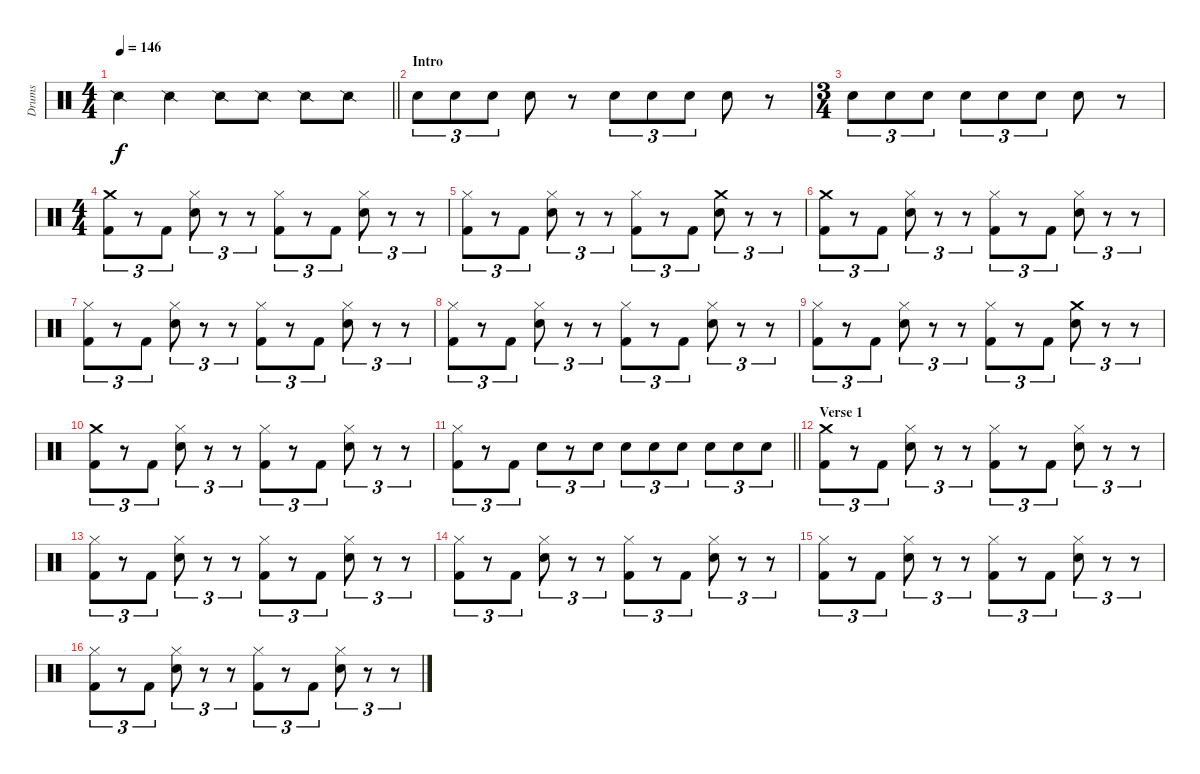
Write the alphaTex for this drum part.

\track ("Drums" "Drums") {instrument percussion}
\staff {score}
\articulation defaults
\ts (4 4)
\tempo 146
\clef neutral
\barLineRight lightlight
\ks c "Snare (side stick) 2".4{dy f} "Snare (side stick) 2".4 "Snare (side stick) 2".8 "Snare (side stick) 2".8 "Snare (side stick) 2".8 "Snare (side stick) 2".8
|
\section ("" "Intro")
"Snare (hit) 2".8{tu (3 2)} "Snare (hit) 2".8{tu (3 2)} "Snare (hit) 2".8{tu (3 2)} "Snare (hit) 2".8 r.8 "Snare (hit) 2".8{tu (3 2)} "Snare (hit) 2".8{tu (3 2)} "Snare (hit) 2".8{tu (3 2)} "Snare (hit) 2".8 r.8 |
\ts (3 4)
"Snare (hit) 2".8{tu (3 2)} "Snare (hit) 2".8{tu (3 2)} "Snare (hit) 2".8{tu (3 2)} "Snare (hit) 2".8{tu (3 2)} "Snare (hit) 2".8{tu (3 2)} "Snare (hit) 2".8{tu (3 2)} "Snare (hit) 2".8 r.8 |
\ts (4 4)
("Crash medium (hit)" "Kick (hit) 2").8{tu (3 2)} r.8{tu (3 2)} "Kick (hit) 2".8{tu (3 2)} ("Hi-Hat (closed)" "Snare (hit) 2").8{tu (3 2)} r.8{tu (3 2)} r.8{tu (3 2)} ("Hi-Hat (closed)" "Kick (hit) 2").8{tu (3 2)} r.8{tu (3 2)} "Kick (hit) 2".8{tu (3 2)} ("Hi-Hat (closed)" "Snare (hit) 2").8{tu (3 2)} r.8{tu (3 2)} r.8{tu (3 2)} |
("Hi-Hat (closed)" "Kick (hit) 2").8{tu (3 2)} r.8{tu (3 2)} "Kick (hit) 2".8{tu (3 2)} ("Hi-Hat (closed)" "Snare (hit) 2").8{tu (3 2)} r.8{tu (3 2)} r.8{tu (3 2)} ("Hi-Hat (closed)" "Kick (hit) 2").8{tu (3 2)} r.8{tu (3 2)} "Kick (hit) 2".8{tu (3 2)} ("Crash medium (hit)" "Snare (hit) 2").8{tu (3 2)} r.8{tu (3 2)} r.8{tu (3 2)} |
("Crash medium (hit)" "Kick (hit) 2").8{tu (3 2)} r.8{tu (3 2)} "Kick (hit) 2".8{tu (3 2)} ("Hi-Hat (closed)" "Snare (hit) 2").8{tu (3 2)} r.8{tu (3 2)} r.8{tu (3 2)} ("Hi-Hat (closed)" "Kick (hit) 2").8{tu (3 2)} r.8{tu (3 2)} "Kick (hit) 2".8{tu (3 2)} ("Hi-Hat (closed)" "Snare (hit) 2").8{tu (3 2)} r.8{tu (3 2)} r.8{tu (3 2)} |
("Hi-Hat (closed)" "Kick (hit) 2").8{tu (3 2)} r.8{tu (3 2)} "Kick (hit) 2".8{tu (3 2)} ("Hi-Hat (closed)" "Snare (hit) 2").8{tu (3 2)} r.8{tu (3 2)} r.8{tu (3 2)} ("Hi-Hat (closed)" "Kick (hit) 2").8{tu (3 2)} r.8{tu (3 2)} "Kick (hit) 2".8{tu (3 2)} ("Hi-Hat (closed)" "Snare (hit) 2").8{tu (3 2)} r.8{tu (3 2)} r.8{tu (3 2)} |
("Hi-Hat (closed)" "Kick (hit) 2").8{tu (3 2)} r.8{tu (3 2)} "Kick (hit) 2".8{tu (3 2)} ("Hi-Hat (closed)" "Snare (hit) 2").8{tu (3 2)} r.8{tu (3 2)} r.8{tu (3 2)} ("Hi-Hat (closed)" "Kick (hit) 2").8{tu (3 2)} r.8{tu (3 2)} "Kick (hit) 2".8{tu (3 2)} ("Hi-Hat (closed)" "Snare (hit) 2").8{tu (3 2)} r.8{tu (3 2)} r.8{tu (3 2)} |
("Hi-Hat (closed)" "Kick (hit) 2").8{tu (3 2)} r.8{tu (3 2)} "Kick (hit) 2".8{tu (3 2)} ("Hi-Hat (closed)" "Snare (hit) 2").8{tu (3 2)} r.8{tu (3 2)} r.8{tu (3 2)} ("Hi-Hat (closed)" "Kick (hit) 2").8{tu (3 2)} r.8{tu (3 2)} "Kick (hit) 2".8{tu (3 2)} ("Crash medium (hit)" "Snare (hit) 2").8{tu (3 2)} r.8{tu (3 2)} r.8{tu (3 2)} |
("Crash medium (hit)" "Kick (hit) 2").8{tu (3 2)} r.8{tu (3 2)} "Kick (hit) 2".8{tu (3 2)} ("Hi-Hat (closed)" "Snare (hit) 2").8{tu (3 2)} r.8{tu (3 2)} r.8{tu (3 2)} ("Hi-Hat (closed)" "Kick (hit) 2").8{tu (3 2)} r.8{tu (3 2)} "Kick (hit) 2".8{tu (3 2)} ("Hi-Hat (closed)" "Snare (hit) 2").8{tu (3 2)} r.8{tu (3 2)} r.8{tu (3 2)} |
\barLineRight lightlight
("Hi-Hat (closed)" "Kick (hit) 2").8{tu (3 2)} r.8{tu (3 2)} "Kick (hit) 2".8{tu (3 2)} "Snare (hit) 2".8{tu (3 2)} r.8{tu (3 2)} "Snare (hit) 2".8{tu (3 2)} "Snare (hit) 2".8{tu (3 2)} "Snare (hit) 2".8{tu (3 2)} "Snare (hit) 2".8{tu (3 2)} "Snare (hit) 2".8{tu (3 2)} "Snare (hit) 2".8{tu (3 2)} "Snare (hit) 2".8{tu (3 2)} |
\section ("" "Verse 1")
("Crash medium (hit)" "Kick (hit) 2").8{tu (3 2)} r.8{tu (3 2)} "Kick (hit) 2".8{tu (3 2)} ("Hi-Hat (closed)" "Snare (hit) 2").8{tu (3 2)} r.8{tu (3 2)} r.8{tu (3 2)} ("Hi-Hat (closed)" "Kick (hit) 2").8{tu (3 2)} r.8{tu (3 2)} "Kick (hit) 2".8{tu (3 2)} ("Hi-Hat (closed)" "Snare (hit) 2").8{tu (3 2)} r.8{tu (3 2)} r.8{tu (3 2)} |
("Hi-Hat (closed)" "Kick (hit) 2").8{tu (3 2)} r.8{tu (3 2)} "Kick (hit) 2".8{tu (3 2)} ("Hi-Hat (closed)" "Snare (hit) 2").8{tu (3 2)} r.8{tu (3 2)} r.8{tu (3 2)} ("Hi-Hat (closed)" "Kick (hit) 2").8{tu (3 2)} r.8{tu (3 2)} "Kick (hit) 2".8{tu (3 2)} ("Hi-Hat (closed)" "Snare (hit) 2").8{tu (3 2)} r.8{tu (3 2)} r.8{tu (3 2)} |
("Hi-Hat (closed)" "Kick (hit) 2").8{tu (3 2)} r.8{tu (3 2)} "Kick (hit) 2".8{tu (3 2)} ("Hi-Hat (closed)" "Snare (hit) 2").8{tu (3 2)} r.8{tu (3 2)} r.8{tu (3 2)} ("Hi-Hat (closed)" "Kick (hit) 2").8{tu (3 2)} r.8{tu (3 2)} "Kick (hit) 2".8{tu (3 2)} ("Hi-Hat (closed)" "Snare (hit) 2").8{tu (3 2)} r.8{tu (3 2)} r.8{tu (3 2)} |
("Hi-Hat (closed)" "Kick (hit) 2").8{tu (3 2)} r.8{tu (3 2)} "Kick (hit) 2".8{tu (3 2)} ("Hi-Hat (closed)" "Snare (hit) 2").8{tu (3 2)} r.8{tu (3 2)} r.8{tu (3 2)} ("Hi-Hat (closed)" "Kick (hit) 2").8{tu (3 2)} r.8{tu (3 2)} "Kick (hit) 2".8{tu (3 2)} ("Hi-Hat (closed)" "Snare (hit) 2").8{tu (3 2)} r.8{tu (3 2)} r.8{tu (3 2)} |
("Hi-Hat (closed)" "Kick (hit) 2").8{tu (3 2)} r.8{tu (3 2)} "Kick (hit) 2".8{tu (3 2)} ("Hi-Hat (closed)" "Snare (hit) 2").8{tu (3 2)} r.8{tu (3 2)} r.8{tu (3 2)} ("Hi-Hat (closed)" "Kick (hit) 2").8{tu (3 2)} r.8{tu (3 2)} "Kick (hit) 2".8{tu (3 2)} ("Hi-Hat (closed)" "Snare (hit) 2").8{tu (3 2)} r.8{tu (3 2)} r.8{tu (3 2)}
